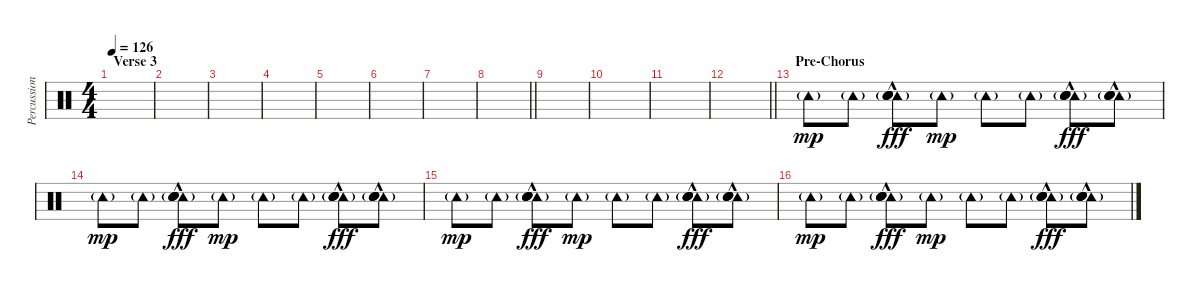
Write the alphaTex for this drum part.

\track ("Percussion" "Percussion") {instrument percussion}
\staff {score}
\articulation defaults
\ts (4 4)
\section ("" "Verse 3")
\tempo 126
\clef neutral
\ks c
|
|
|
|
|
|
|
\barLineRight lightlight
|
|
|
|
\barLineRight lightlight
|
\section ("" "Pre-Chorus")
"Tambourine (hit)"{g}.8{dy mp} "Tambourine (hit)"{g}.8 ("Tambourine (hit)"{g} "Hand Clap (hit)"{hac} "Hand Clap (hit)"{hac} "Hand Clap (hit)"{hac}).8{dy fff} "Tambourine (hit)"{g}.8{dy mp} "Tambourine (hit)"{g}.8 "Tambourine (hit)"{g}.8 ("Tambourine (hit)"{g} "Hand Clap (hit)"{hac} "Hand Clap (hit)"{hac} "Hand Clap (hit)"{hac}).8{dy fff} ("Tambourine (hit)"{g} "Hand Clap (hit)"{hac} "Hand Clap (hit)"{hac} "Hand Clap (hit)"{hac}).8 |
"Tambourine (hit)"{g}.8{dy mp} "Tambourine (hit)"{g}.8 ("Tambourine (hit)"{g} "Hand Clap (hit)"{hac} "Hand Clap (hit)"{hac} "Hand Clap (hit)"{hac}).8{dy fff} "Tambourine (hit)"{g}.8{dy mp} "Tambourine (hit)"{g}.8 "Tambourine (hit)"{g}.8 ("Tambourine (hit)"{g} "Hand Clap (hit)"{hac} "Hand Clap (hit)"{hac} "Hand Clap (hit)"{hac}).8{dy fff} ("Tambourine (hit)"{g} "Hand Clap (hit)"{hac} "Hand Clap (hit)"{hac} "Hand Clap (hit)"{hac}).8 |
"Tambourine (hit)"{g}.8{dy mp} "Tambourine (hit)"{g}.8 ("Tambourine (hit)"{g} "Hand Clap (hit)"{hac} "Hand Clap (hit)"{hac} "Hand Clap (hit)"{hac}).8{dy fff} "Tambourine (hit)"{g}.8{dy mp} "Tambourine (hit)"{g}.8 "Tambourine (hit)"{g}.8 ("Tambourine (hit)"{g} "Hand Clap (hit)"{hac} "Hand Clap (hit)"{hac} "Hand Clap (hit)"{hac}).8{dy fff} ("Tambourine (hit)"{g} "Hand Clap (hit)"{hac} "Hand Clap (hit)"{hac} "Hand Clap (hit)"{hac}).8 |
"Tambourine (hit)"{g}.8{dy mp} "Tambourine (hit)"{g}.8 ("Tambourine (hit)"{g} "Hand Clap (hit)"{hac} "Hand Clap (hit)"{hac} "Hand Clap (hit)"{hac}).8{dy fff} "Tambourine (hit)"{g}.8{dy mp} "Tambourine (hit)"{g}.8 "Tambourine (hit)"{g}.8 ("Tambourine (hit)"{g} "Hand Clap (hit)"{hac} "Hand Clap (hit)"{hac} "Hand Clap (hit)"{hac}).8{dy fff} ("Tambourine (hit)"{g} "Hand Clap (hit)"{hac} "Hand Clap (hit)"{hac} "Hand Clap (hit)"{hac}).8
